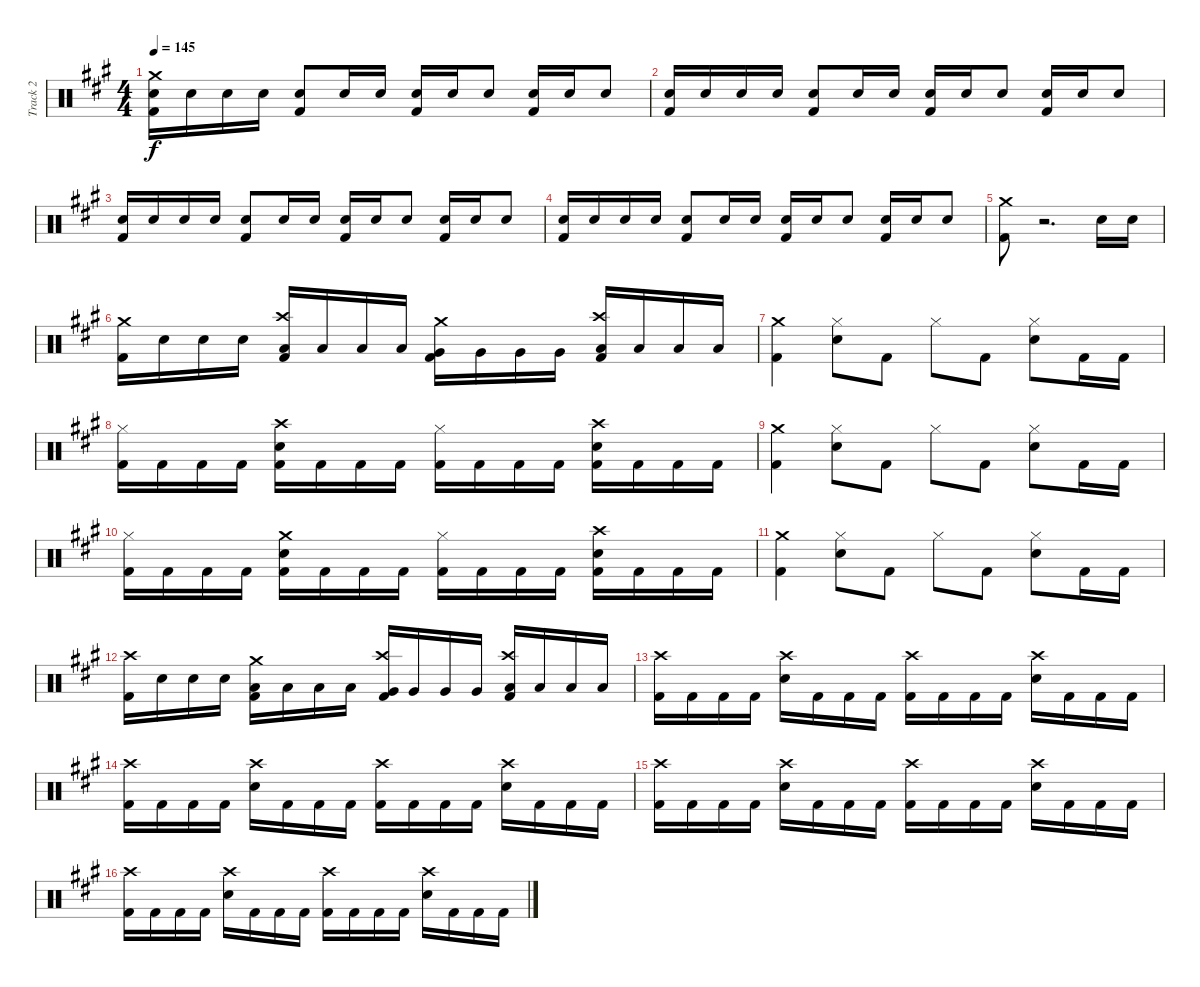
\track ("Track 2" "Track 2") {instrument percussion}
\staff {score}
\articulation defaults
\ts (4 4)
\tempo 145
\clef neutral
\ks a
("Crash medium (hit)" "Snare (hit) 2" "Kick (hit) 2").16{dy f} "Snare (hit) 2".16 "Snare (hit) 2".16 "Snare (hit) 2".16 ("Snare (hit) 2" "Kick (hit) 2").8 "Snare (hit) 2".16 "Snare (hit) 2".16 ("Snare (hit) 2" "Kick (hit) 2").16 "Snare (hit) 2".16 "Snare (hit) 2".8 ("Snare (hit) 2" "Kick (hit) 2").16 "Snare (hit) 2".16 "Snare (hit) 2".8 |
("Snare (hit) 2" "Kick (hit) 2").16 "Snare (hit) 2".16 "Snare (hit) 2".16 "Snare (hit) 2".16 ("Snare (hit) 2" "Kick (hit) 2").8 "Snare (hit) 2".16 "Snare (hit) 2".16 ("Snare (hit) 2" "Kick (hit) 2").16 "Snare (hit) 2".16 "Snare (hit) 2".8 ("Snare (hit) 2" "Kick (hit) 2").16 "Snare (hit) 2".16 "Snare (hit) 2".8 |
("Snare (hit) 2" "Kick (hit) 2").16 "Snare (hit) 2".16 "Snare (hit) 2".16 "Snare (hit) 2".16 ("Snare (hit) 2" "Kick (hit) 2").8 "Snare (hit) 2".16 "Snare (hit) 2".16 ("Snare (hit) 2" "Kick (hit) 2").16 "Snare (hit) 2".16 "Snare (hit) 2".8 ("Snare (hit) 2" "Kick (hit) 2").16 "Snare (hit) 2".16 "Snare (hit) 2".8 |
("Snare (hit) 2" "Kick (hit) 2").16 "Snare (hit) 2".16 "Snare (hit) 2".16 "Snare (hit) 2".16 ("Snare (hit) 2" "Kick (hit) 2").8 "Snare (hit) 2".16 "Snare (hit) 2".16 ("Snare (hit) 2" "Kick (hit) 2").16 "Snare (hit) 2".16 "Snare (hit) 2".8 ("Snare (hit) 2" "Kick (hit) 2").16 "Snare (hit) 2".16 "Snare (hit) 2".8 |
("Crash medium (hit)" "Kick (hit) 2").8 r.2{d} "Snare (hit) 2".16 "Snare (hit) 2".16 |
("Crash medium (hit)" "Kick (hit) 2").16 "Snare (hit) 2".16 "Snare (hit) 2".16 "Snare (hit) 2".16 ("Crash high (hit)" "Low Tom (hit)" "Kick (hit) 2").16 "Low Tom (hit)".16 "Low Tom (hit)".16 "Low Tom (hit)".16 ("Crash medium (hit)" "Very Low Tom (hit)" "Kick (hit) 2").16 "Very Low Tom (hit)".16 "Very Low Tom (hit)".16 "Very Low Tom (hit)".16 ("Crash high (hit)" "Low Floor Tom (hit)" "Kick (hit) 2").16 "Low Floor Tom (hit)".16 "Low Floor Tom (hit)".16 "Low Floor Tom (hit)".16 |
("Crash medium (hit)" "Kick (hit) 2").4 ("Hi-Hat (closed)" "Snare (hit) 2").8 "Kick (hit) 2".8 "Hi-Hat (closed)".8 "Kick (hit) 2".8 ("Hi-Hat (closed)" "Snare (hit) 2").8 "Kick (hit) 2".16 "Kick (hit) 2".16 |
("Hi-Hat (closed)" "Kick (hit) 2").16 "Kick (hit) 2".16 "Kick (hit) 2".16 "Kick (hit) 2".16 ("Crash high (hit)" "Snare (hit) 2" "Kick (hit) 2").16 "Kick (hit) 2".16 "Kick (hit) 2".16 "Kick (hit) 2".16 ("Hi-Hat (closed)" "Kick (hit) 2").16 "Kick (hit) 2".16 "Kick (hit) 2".16 "Kick (hit) 2".16 ("Crash high (hit)" "Snare (hit) 2" "Kick (hit) 2").16 "Kick (hit) 2".16 "Kick (hit) 2".16 "Kick (hit) 2".16 |
("Crash medium (hit)" "Kick (hit) 2").4 ("Hi-Hat (closed)" "Snare (hit) 2").8 "Kick (hit) 2".8 "Hi-Hat (closed)".8 "Kick (hit) 2".8 ("Hi-Hat (closed)" "Snare (hit) 2").8 "Kick (hit) 2".16 "Kick (hit) 2".16 |
("Hi-Hat (closed)" "Kick (hit) 2").16 "Kick (hit) 2".16 "Kick (hit) 2".16 "Kick (hit) 2".16 ("Crash medium (hit)" "Snare (hit) 2" "Kick (hit) 2").16 "Kick (hit) 2".16 "Kick (hit) 2".16 "Kick (hit) 2".16 ("Hi-Hat (closed)" "Kick (hit) 2").16 "Kick (hit) 2".16 "Kick (hit) 2".16 "Kick (hit) 2".16 ("Crash high (hit)" "Snare (hit) 2" "Kick (hit) 2").16 "Kick (hit) 2".16 "Kick (hit) 2".16 "Kick (hit) 2".16 |
("Crash medium (hit)" "Kick (hit) 2").4 ("Hi-Hat (closed)" "Snare (hit) 2").8 "Kick (hit) 2".8 "Hi-Hat (closed)".8 "Kick (hit) 2".8 ("Hi-Hat (closed)" "Snare (hit) 2").8 "Kick (hit) 2".16 "Kick (hit) 2".16 |
("Crash high (hit)" "Kick (hit) 2").16 "Snare (hit) 2".16 "Snare (hit) 2".16 "Snare (hit) 2".16 ("Crash medium (hit)" "Low Tom (hit)" "Kick (hit) 2").16 "Low Tom (hit)".16 "Low Tom (hit)".16 "Low Tom (hit)".16 ("Crash high (hit)" "Very Low Tom (hit)" "Kick (hit) 2").16 "Very Low Tom (hit)".16 "Very Low Tom (hit)".16 "Very Low Tom (hit)".16 ("Crash high (hit)" "Low Floor Tom (hit)" "Kick (hit) 2").16 "Low Floor Tom (hit)".16 "Low Floor Tom (hit)".16 "Low Floor Tom (hit)".16 |
("Crash high (hit)" "Kick (hit) 2").16 "Kick (hit) 2".16 "Kick (hit) 2".16 "Kick (hit) 2".16 ("Crash high (hit)" "Snare (hit) 2").16 "Kick (hit) 2".16 "Kick (hit) 2".16 "Kick (hit) 2".16 ("Crash high (hit)" "Kick (hit) 2").16 "Kick (hit) 2".16 "Kick (hit) 2".16 "Kick (hit) 2".16 ("Crash high (hit)" "Snare (hit) 2").16 "Kick (hit) 2".16 "Kick (hit) 2".16 "Kick (hit) 2".16 |
("Crash high (hit)" "Kick (hit) 2").16 "Kick (hit) 2".16 "Kick (hit) 2".16 "Kick (hit) 2".16 ("Crash high (hit)" "Snare (hit) 2").16 "Kick (hit) 2".16 "Kick (hit) 2".16 "Kick (hit) 2".16 ("Crash high (hit)" "Kick (hit) 2").16 "Kick (hit) 2".16 "Kick (hit) 2".16 "Kick (hit) 2".16 ("Crash high (hit)" "Snare (hit) 2").16 "Kick (hit) 2".16 "Kick (hit) 2".16 "Kick (hit) 2".16 |
("Crash high (hit)" "Kick (hit) 2").16 "Kick (hit) 2".16 "Kick (hit) 2".16 "Kick (hit) 2".16 ("Crash high (hit)" "Snare (hit) 2").16 "Kick (hit) 2".16 "Kick (hit) 2".16 "Kick (hit) 2".16 ("Crash high (hit)" "Kick (hit) 2").16 "Kick (hit) 2".16 "Kick (hit) 2".16 "Kick (hit) 2".16 ("Crash high (hit)" "Snare (hit) 2").16 "Kick (hit) 2".16 "Kick (hit) 2".16 "Kick (hit) 2".16 |
("Crash high (hit)" "Kick (hit) 2").16 "Kick (hit) 2".16 "Kick (hit) 2".16 "Kick (hit) 2".16 ("Crash high (hit)" "Snare (hit) 2").16 "Kick (hit) 2".16 "Kick (hit) 2".16 "Kick (hit) 2".16 ("Crash high (hit)" "Kick (hit) 2").16 "Kick (hit) 2".16 "Kick (hit) 2".16 "Kick (hit) 2".16 ("Crash high (hit)" "Snare (hit) 2").16 "Kick (hit) 2".16 "Kick (hit) 2".16 "Kick (hit) 2".16
